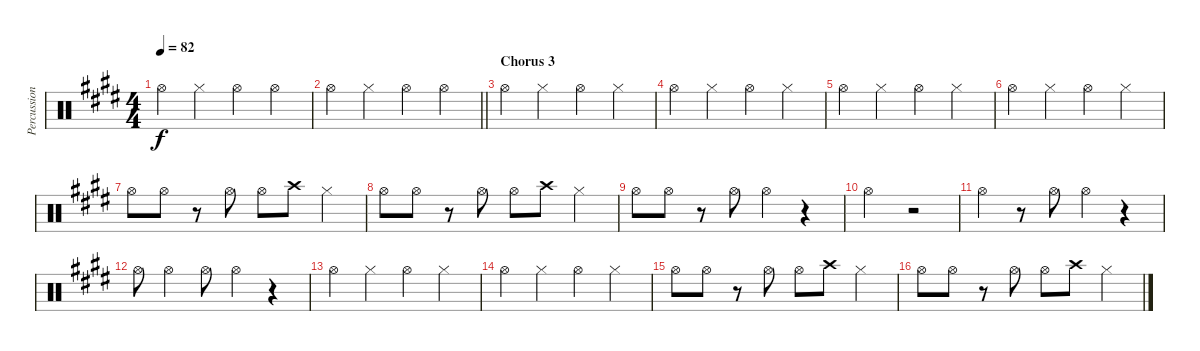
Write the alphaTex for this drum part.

\track ("Percussion" "Percussion") {instrument percussion}
\staff {score}
\articulation defaults
\ts (4 4)
\tempo 82
\clef neutral
\ks e "Hi-Hat (open)".4{dy f} "Hi-Hat (closed)".4 "Hi-Hat (open)".4 "Hi-Hat (open)".4
|
\barLineRight lightlight "Hi-Hat (open)".4 "Hi-Hat (closed)".4 "Hi-Hat (open)".4 "Hi-Hat (open)".4
|
\section ("" "Chorus 3")
"Hi-Hat (open)".4 "Hi-Hat (closed)".4 "Hi-Hat (open)".4 "Hi-Hat (closed)".4 |
"Hi-Hat (open)".4 "Hi-Hat (closed)".4 "Hi-Hat (open)".4 "Hi-Hat (closed)".4 |
"Hi-Hat (open)".4 "Hi-Hat (closed)".4 "Hi-Hat (open)".4 "Hi-Hat (closed)".4 |
"Hi-Hat (open)".4 "Hi-Hat (closed)".4 "Hi-Hat (open)".4 "Hi-Hat (closed)".4 |
"Hi-Hat (open)".8 "Hi-Hat (open)".8 r.8 "Hi-Hat (open)".8 "Hi-Hat (open)".8 "Crash high (hit)".8 "Hi-Hat (closed)".4 |
"Hi-Hat (open)".8 "Hi-Hat (open)".8 r.8 "Hi-Hat (open)".8 "Hi-Hat (open)".8 "Crash high (hit)".8 "Hi-Hat (closed)".4 |
"Hi-Hat (open)".8 "Hi-Hat (open)".8 r.8 "Hi-Hat (open)".8 "Hi-Hat (open)".4 r.4 |
"Hi-Hat (open)".2 r.2 |
"Hi-Hat (open)".4 r.8 "Hi-Hat (open)".8 "Hi-Hat (open)".4 r.4 |
"Hi-Hat (open)".8 "Hi-Hat (open)".4 "Hi-Hat (open)".8 "Hi-Hat (open)".4 r.4 |
"Hi-Hat (open)".4 "Hi-Hat (closed)".4 "Hi-Hat (open)".4 "Hi-Hat (closed)".4 |
"Hi-Hat (open)".4 "Hi-Hat (closed)".4 "Hi-Hat (open)".4 "Hi-Hat (closed)".4 |
"Hi-Hat (open)".8 "Hi-Hat (open)".8 r.8 "Hi-Hat (open)".8 "Hi-Hat (open)".8 "Crash high (hit)".8 "Hi-Hat (closed)".4 |
"Hi-Hat (open)".8 "Hi-Hat (open)".8 r.8 "Hi-Hat (open)".8 "Hi-Hat (open)".8 "Crash high (hit)".8 "Hi-Hat (closed)".4
